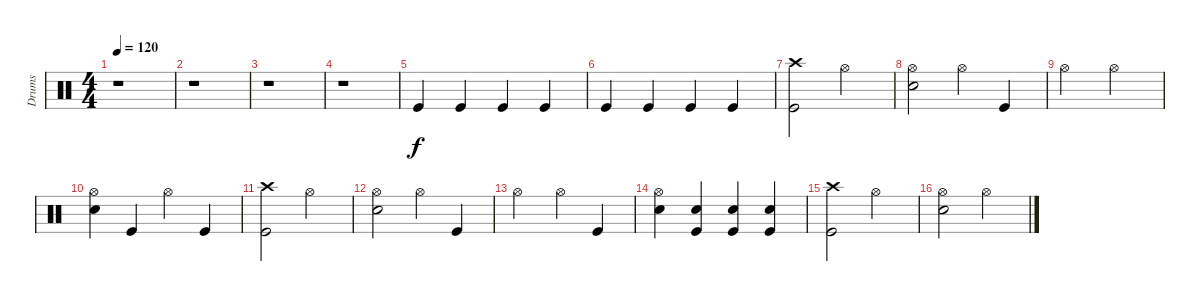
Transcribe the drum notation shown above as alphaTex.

\track ("Drums" "Drums") {instrument percussion}
\staff {score}
\articulation defaults
\ts (4 4)
\tempo 120
\clef neutral
\ks c
r.1{dy f} |
r.1 |
r.1 |
r.1 |
"Kick (hit)".4 "Kick (hit)".4 "Kick (hit)".4 "Kick (hit)".4 |
"Kick (hit)".4 "Kick (hit)".4 "Kick (hit)".4 "Kick (hit)".4 |
("Crash high (hit)" "Kick (hit)").2 "Hi-Hat (open)".2 |
("Hi-Hat (open)" "Electric Snare (hit)").2 "Hi-Hat (open)".4 "Kick (hit)".4 |
"Hi-Hat (open)".2 "Hi-Hat (open)".2 |
("Hi-Hat (open)" "Electric Snare (hit)").4 "Kick (hit)".4 "Hi-Hat (open)".4 "Kick (hit)".4 |
("Crash high (hit)" "Kick (hit)").2 "Hi-Hat (open)".2 |
("Hi-Hat (open)" "Electric Snare (hit)").2 "Hi-Hat (open)".4 "Kick (hit)".4 |
"Hi-Hat (open)".2 "Hi-Hat (open)".4 "Kick (hit)".4 |
("Hi-Hat (open)" "Electric Snare (hit)").4 ("Electric Snare (hit)" "Kick (hit)").4 ("Electric Snare (hit)" "Kick (hit)").4 ("Electric Snare (hit)" "Kick (hit)").4 |
("Crash high (hit)" "Kick (hit)").2 "Hi-Hat (open)".2 |
("Hi-Hat (open)" "Electric Snare (hit)").2 "Hi-Hat (open)".2
